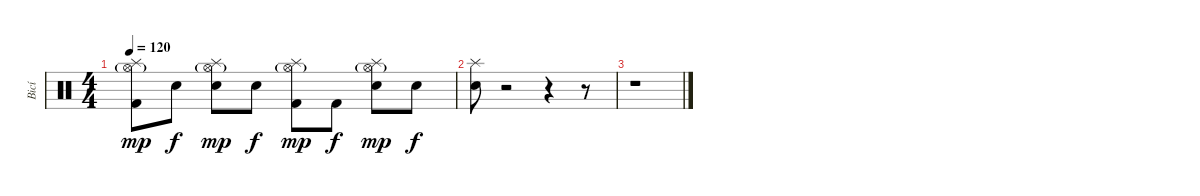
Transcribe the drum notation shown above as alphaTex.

\track ("Bicí" "Bicí") {instrument percussion}
\staff {score}
\articulation defaults
\ts (4 4)
\tempo 120
\clef neutral
\ks c
("Splash (hit)" "Hi-Hat (open)"{g} "Kick (hit) 2").8{dy mp} "Snare (hit)".8{dy f} ("Splash (hit)" "Hi-Hat (open)"{g} "Electric Snare (hit)").8{dy mp} "Snare (hit)".8{dy f} ("Splash (hit)" "Hi-Hat (open)"{g} "Kick (hit) 2").8{dy mp} "Kick (hit) 2".8{dy f} ("Splash (hit)" "Hi-Hat (open)"{g} "Electric Snare (hit)").8{dy mp} "Snare (hit)".8{dy f} |
("Splash (hit)" "Electric Snare (hit)").8 r.2 r.4 r.8 |
r.1
